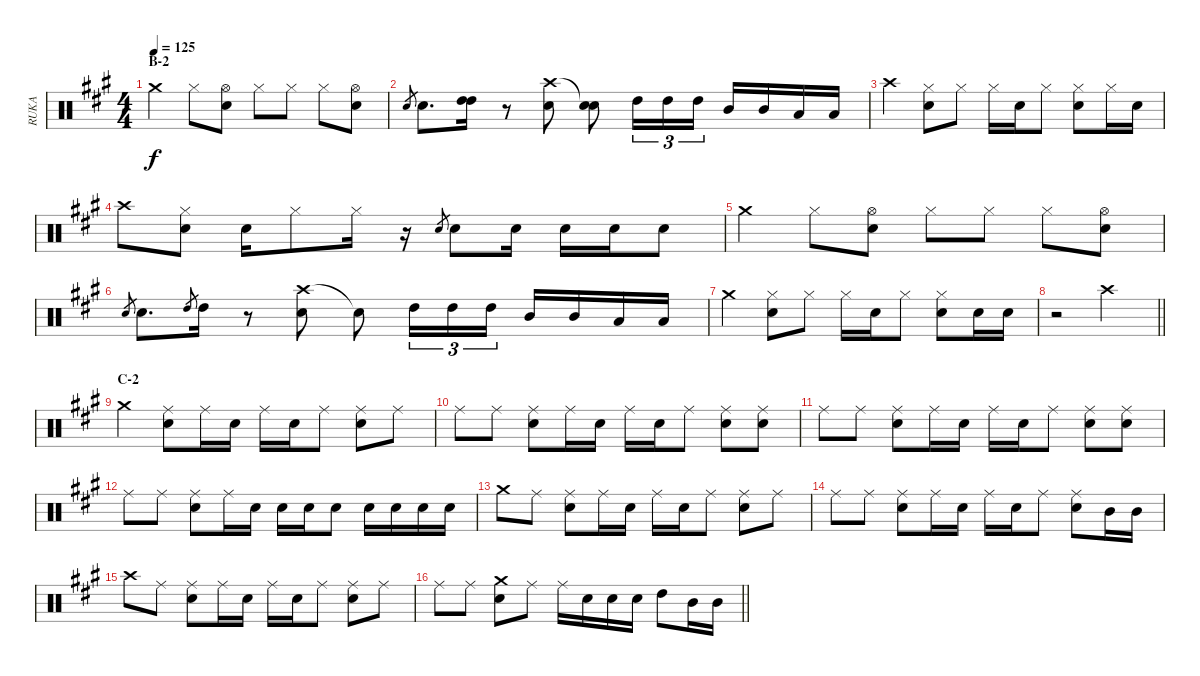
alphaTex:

\track ("RUKA" "RUKA") {instrument percussion}
\staff {score}
\articulation defaults
\ts (4 4)
\section ("" "B-2")
\tempo 125
\clef neutral
\ks a "Crash medium (hit)".4{dy f} "Hi-Hat (closed)".8
("Hi-Hat (open)" "Snare (hit) 2").8 "Hi-Hat (closed)".8 "Hi-Hat (closed)".8 "Hi-Hat (closed)".8 ("Hi-Hat (open)" "Snare (hit) 2").8 |
"Snare (hit) 2".8{gr} "Snare (hit) 2".8{d} ("High Tom (hit)" "High Tom (hit)").16 r.8 ("Crash high (hit)" "Snare (hit) 2").8 ("Snare (hit)"{t} "Snare (hit) 2").8 "High Tom (hit)".16{tu (3 2)} "High Tom (hit)".16{tu (3 2)} "High Tom (hit)".16{tu (3 2)} "Mid Tom (hit)".16 "Mid Tom (hit)".16 "Low Tom (hit)".16 "Low Tom (hit)".16 |
"Crash high (hit)".4 ("Hi-Hat (closed)" "Snare (hit) 2").8 "Hi-Hat (closed)".8 "Hi-Hat (closed)".16 "Snare (hit) 2".16 "Hi-Hat (closed)".8 ("Hi-Hat (closed)" "Snare (hit) 2").8 "Hi-Hat (closed)".16 "Snare (hit) 2".16 |
"Crash high (hit)".8 ("Hi-Hat (closed)" "Snare (hit) 2").8 "Snare (hit) 2".16 "Hi-Hat (closed)".8 "Hi-Hat (closed)".16 r.16 "Snare (hit) 2".8{gr} "Snare (hit) 2".8 "Snare (hit) 2".16 "Snare (hit) 2".16 "Snare (hit) 2".16 "Snare (hit) 2".8 |
"Crash medium (hit)".4 "Hi-Hat (closed)".8 ("Hi-Hat (open)" "Snare (hit) 2").8 "Hi-Hat (closed)".8 "Hi-Hat (closed)".8 "Hi-Hat (closed)".8 ("Hi-Hat (open)" "Snare (hit) 2").8 |
"Snare (hit) 2".8{gr} "Snare (hit) 2".8{d} "High Tom (hit)".8{gr} "High Tom (hit)".16 r.8 ("Crash high (hit)" "Snare (hit) 2").8 "Snare (hit)"{t}.8 "High Tom (hit)".16{tu (3 2)} "High Tom (hit)".16{tu (3 2)} "High Tom (hit)".16{tu (3 2)} "Mid Tom (hit)".16 "Mid Tom (hit)".16 "Low Tom (hit)".16 "Low Tom (hit)".16 |
"Crash medium (hit)".4 ("Hi-Hat (closed)" "Snare (hit) 2").8 "Hi-Hat (closed)".8 "Hi-Hat (closed)".16 "Snare (hit) 2".16 "Hi-Hat (closed)".8 ("Hi-Hat (closed)" "Snare (hit) 2").8 "Snare (hit) 2".16 "Snare (hit) 2".16 |
\barLineRight lightlight
r.2 "Crash high (hit)".2 |
\section ("" "C-2")
"Crash medium (hit)".4 ("Ride (middle)" "Snare (hit) 2").8 "Ride (middle)".16 "Snare (hit) 2".16 "Ride (middle)".16 "Snare (hit) 2".16 "Ride (middle)".8 ("Ride (middle)" "Snare (hit) 2").8 "Ride (middle)".8 |
"Ride (middle)".8 "Ride (middle)".8 ("Ride (middle)" "Snare (hit) 2").8 "Ride (middle)".16 "Snare (hit) 2".16 "Ride (middle)".16 "Snare (hit) 2".16 "Ride (middle)".8 ("Ride (middle)" "Snare (hit) 2").8 ("Ride (middle)" "Snare (hit) 2").8 |
"Ride (middle)".8 "Ride (middle)".8 ("Ride (middle)" "Snare (hit) 2").8 "Ride (middle)".16 "Snare (hit) 2".16 "Ride (middle)".16 "Snare (hit) 2".16 "Ride (middle)".8 ("Ride (middle)" "Snare (hit) 2").8 ("Ride (middle)" "Snare (hit) 2").8 |
"Ride (middle)".8 "Ride (middle)".8 ("Ride (middle)" "Snare (hit) 2").8 "Ride (middle)".16 "Snare (hit) 2".16 "Snare (hit) 2".16 "Snare (hit) 2".16 "Snare (hit) 2".8 "Snare (hit) 2".16 "Snare (hit) 2".16 "Snare (hit) 2".16 "Snare (hit) 2".16 |
"Crash medium (hit)".8 "Ride (middle)".8 ("Ride (middle)" "Snare (hit) 2").8 "Ride (middle)".16 "Snare (hit) 2".16 "Ride (middle)".16 "Snare (hit) 2".16 "Ride (middle)".8 ("Ride (middle)" "Snare (hit) 2").8 "Ride (middle)".8 |
"Ride (middle)".8 "Ride (middle)".8 ("Ride (middle)" "Snare (hit) 2").8 "Ride (middle)".16 "Snare (hit) 2".16 "Ride (middle)".16 "Snare (hit) 2".16 "Ride (middle)".8 ("Ride (middle)" "Snare (hit) 2").8 "Mid Tom (hit)".16 "Mid Tom (hit)".16 |
"Crash high (hit)".8 "Ride (middle)".8 ("Ride (middle)" "Snare (hit) 2").8 "Ride (middle)".16 "Snare (hit) 2".16 "Ride (middle)".16 "Snare (hit) 2".16 "Ride (middle)".8 ("Ride (middle)" "Snare (hit) 2").8 "Ride (middle)".8 |
\barLineRight lightlight "Ride (middle)".8 "Ride (middle)".8
("Crash medium (hit)" "Snare (hit) 2").8 "Ride (middle)".8 "Ride (middle)".16 "Snare (hit) 2".16 "Snare (hit) 2".16 "Snare (hit) 2".16 "High Tom (hit)".8 "Mid Tom (hit)".16 "Mid Tom (hit)".16
